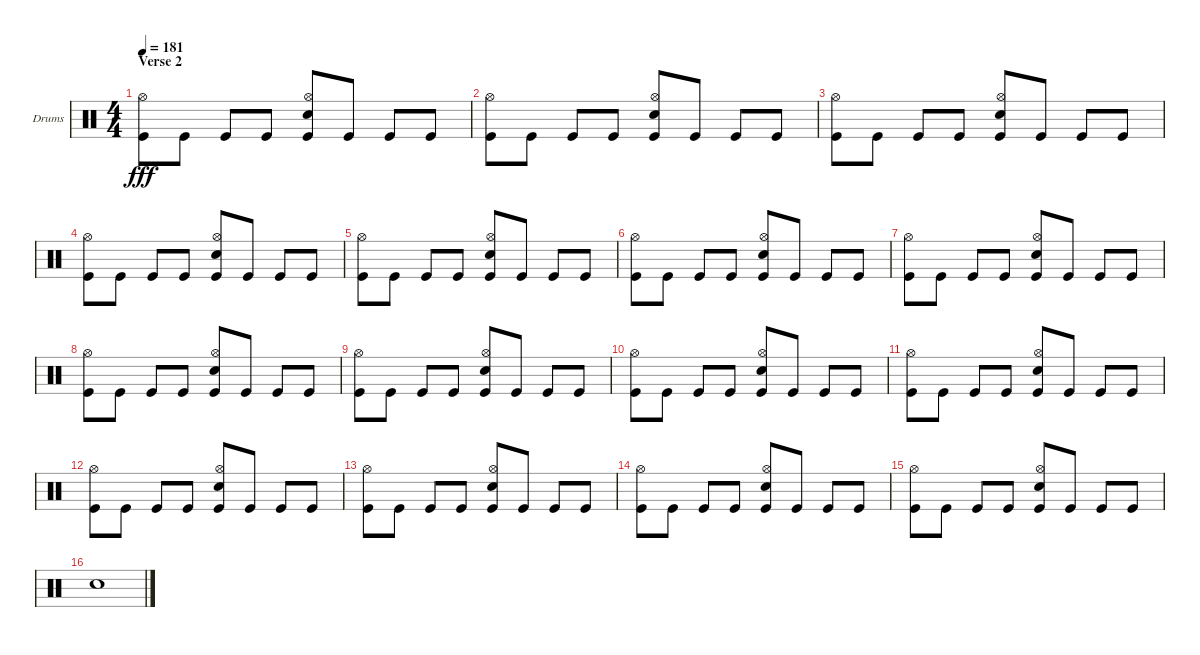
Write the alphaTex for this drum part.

\bracketExtendMode groupsimilarinstruments
\firstSystemTrackNameOrientation horizontal
\otherSystemsTrackNameOrientation horizontal
\track ("Drumkit" "Drums") {solo instrument percussion}
\staff {score}
\articulation defaults
\ts (4 4)
\section ("" "Verse 2")
\tempo 181
\clef neutral
\scale
0.333333
\ks c
("Kick (hit)" "Hi-Hat (open)").8{dy fff} "Kick (hit)".8 "Kick (hit)".8 "Kick (hit)".8 ("Kick (hit)" "Snare (hit) 2" "Hi-Hat (open)").8 "Kick (hit)".8 "Kick (hit)".8 "Kick (hit)".8 |
\scale
0.333333 ("Kick (hit)" "Hi-Hat (open)").8 "Kick (hit)".8 "Kick (hit)".8 "Kick (hit)".8 ("Kick (hit)" "Snare (hit) 2" "Hi-Hat (open)").8 "Kick (hit)".8 "Kick (hit)".8 "Kick (hit)".8 |
\scale
0.333333 ("Kick (hit)" "Hi-Hat (open)").8 "Kick (hit)".8 "Kick (hit)".8 "Kick (hit)".8 ("Kick (hit)" "Snare (hit) 2" "Hi-Hat (open)").8 "Kick (hit)".8 "Kick (hit)".8 "Kick (hit)".8 |
\scale
0.333333 ("Kick (hit)" "Hi-Hat (open)").8 "Kick (hit)".8 "Kick (hit)".8 "Kick (hit)".8 ("Kick (hit)" "Snare (hit) 2" "Hi-Hat (open)").8 "Kick (hit)".8 "Kick (hit)".8 "Kick (hit)".8 |
\scale
0.333333 ("Kick (hit)" "Hi-Hat (open)").8 "Kick (hit)".8 "Kick (hit)".8 "Kick (hit)".8 ("Kick (hit)" "Snare (hit) 2" "Hi-Hat (open)").8 "Kick (hit)".8 "Kick (hit)".8 "Kick (hit)".8 |
\scale
0.333333 ("Kick (hit)" "Hi-Hat (open)").8 "Kick (hit)".8 "Kick (hit)".8 "Kick (hit)".8 ("Kick (hit)" "Snare (hit) 2" "Hi-Hat (open)").8 "Kick (hit)".8 "Kick (hit)".8 "Kick (hit)".8 |
\scale
0.333333 ("Kick (hit)" "Hi-Hat (open)").8 "Kick (hit)".8 "Kick (hit)".8 "Kick (hit)".8 ("Kick (hit)" "Snare (hit) 2" "Hi-Hat (open)").8 "Kick (hit)".8 "Kick (hit)".8 "Kick (hit)".8 |
\scale
0.333333 ("Kick (hit)" "Hi-Hat (open)").8 "Kick (hit)".8 "Kick (hit)".8 "Kick (hit)".8 ("Kick (hit)" "Snare (hit) 2" "Hi-Hat (open)").8 "Kick (hit)".8 "Kick (hit)".8 "Kick (hit)".8 |
\scale
0.333333 ("Kick (hit)" "Hi-Hat (open)").8 "Kick (hit)".8 "Kick (hit)".8 "Kick (hit)".8 ("Kick (hit)" "Snare (hit) 2" "Hi-Hat (open)").8 "Kick (hit)".8 "Kick (hit)".8 "Kick (hit)".8 |
\scale
0.333333 ("Kick (hit)" "Hi-Hat (open)").8 "Kick (hit)".8 "Kick (hit)".8 "Kick (hit)".8 ("Kick (hit)" "Snare (hit) 2" "Hi-Hat (open)").8 "Kick (hit)".8 "Kick (hit)".8 "Kick (hit)".8 |
\scale
0.333333 ("Kick (hit)" "Hi-Hat (open)").8 "Kick (hit)".8 "Kick (hit)".8 "Kick (hit)".8 ("Kick (hit)" "Snare (hit) 2" "Hi-Hat (open)").8 "Kick (hit)".8 "Kick (hit)".8 "Kick (hit)".8 |
\scale
0.333333 ("Kick (hit)" "Hi-Hat (open)").8 "Kick (hit)".8 "Kick (hit)".8 "Kick (hit)".8 ("Kick (hit)" "Snare (hit) 2" "Hi-Hat (open)").8 "Kick (hit)".8 "Kick (hit)".8 "Kick (hit)".8 |
\scale
0.333333 ("Kick (hit)" "Hi-Hat (open)").8 "Kick (hit)".8 "Kick (hit)".8 "Kick (hit)".8 ("Kick (hit)" "Snare (hit) 2" "Hi-Hat (open)").8 "Kick (hit)".8 "Kick (hit)".8 "Kick (hit)".8 |
\scale
0.333333 ("Kick (hit)" "Hi-Hat (open)").8 "Kick (hit)".8 "Kick (hit)".8 "Kick (hit)".8 ("Kick (hit)" "Snare (hit) 2" "Hi-Hat (open)").8 "Kick (hit)".8 "Kick (hit)".8 "Kick (hit)".8 |
\scale
0.333333 ("Kick (hit)" "Hi-Hat (open)").8 "Kick (hit)".8 "Kick (hit)".8 "Kick (hit)".8 ("Kick (hit)" "Snare (hit) 2" "Hi-Hat (open)").8 "Kick (hit)".8 "Kick (hit)".8 "Kick (hit)".8 |
\scale
0.333333 "Snare (hit) 2".1
